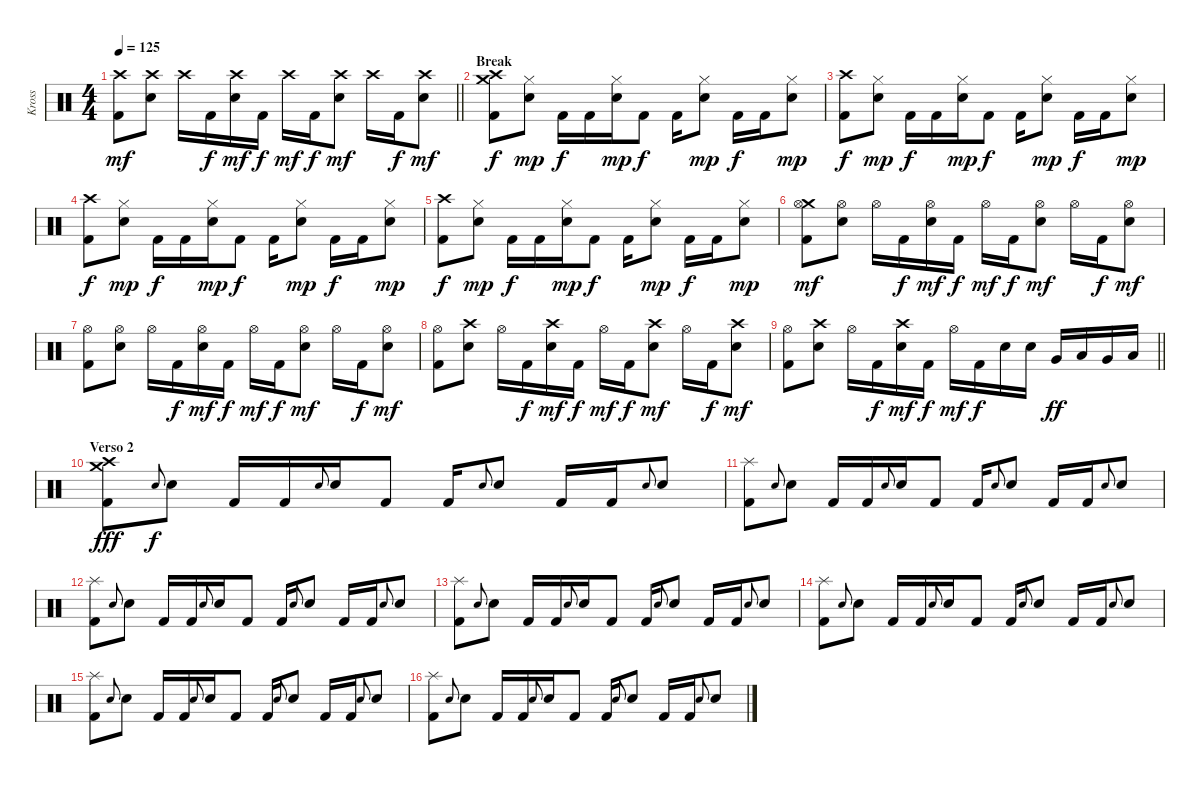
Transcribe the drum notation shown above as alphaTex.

\track ("Kross" "Kross") {instrument percussion}
\staff {score}
\articulation defaults
\ts (4 4)
\tempo 125
\clef neutral
\barLineRight lightlight
\ks c
("Crash high (hit)" "Kick (hit) 2").8{dy mf} ("Crash high (hit)" "Snare (hit) 2").8 "Crash high (hit)".16 "Kick (hit) 2".16{dy f} ("Crash high (hit)" "Snare (hit) 2").16{dy mf} "Kick (hit) 2".16{dy f} "Crash high (hit)".16{dy mf} "Kick (hit) 2".16{dy f} ("Crash high (hit)" "Snare (hit) 2").8{dy mf} "Crash high (hit)".16 "Kick (hit) 2".16{dy f} ("Crash high (hit)" "Snare (hit) 2").8{dy mf} |
\section ("" "Break")
("Crash high (hit)" "Crash medium (hit)" "Kick (hit) 2").8{dy f} ("Hi-Hat (closed)" "Snare (hit) 2").8{dy mp} "Kick (hit) 2".16{dy f} "Kick (hit) 2".16 ("Hi-Hat (closed)" "Snare (hit) 2").16{dy mp} "Kick (hit) 2".8{dy f} "Kick (hit) 2".16 ("Hi-Hat (closed)" "Snare (hit) 2").8{dy mp} "Kick (hit) 2".16{dy f} "Kick (hit) 2".16 ("Hi-Hat (closed)" "Snare (hit) 2").8{dy mp} |
("Crash high (hit)" "Kick (hit) 2").8{dy f} ("Hi-Hat (closed)" "Snare (hit) 2").8{dy mp} "Kick (hit) 2".16{dy f} "Kick (hit) 2".16 ("Hi-Hat (closed)" "Snare (hit) 2").16{dy mp} "Kick (hit) 2".8{dy f} "Kick (hit) 2".16 ("Hi-Hat (closed)" "Snare (hit) 2").8{dy mp} "Kick (hit) 2".16{dy f} "Kick (hit) 2".16 ("Hi-Hat (closed)" "Snare (hit) 2").8{dy mp} |
("Crash high (hit)" "Kick (hit) 2").8{dy f} ("Hi-Hat (closed)" "Snare (hit) 2").8{dy mp} "Kick (hit) 2".16{dy f} "Kick (hit) 2".16 ("Hi-Hat (closed)" "Snare (hit) 2").16{dy mp} "Kick (hit) 2".8{dy f} "Kick (hit) 2".16 ("Hi-Hat (closed)" "Snare (hit) 2").8{dy mp} "Kick (hit) 2".16{dy f} "Kick (hit) 2".16 ("Hi-Hat (closed)" "Snare (hit) 2").8{dy mp} |
("Crash high (hit)" "Kick (hit) 2").8{dy f} ("Hi-Hat (closed)" "Snare (hit) 2").8{dy mp} "Kick (hit) 2".16{dy f} "Kick (hit) 2".16 ("Hi-Hat (closed)" "Snare (hit) 2").16{dy mp} "Kick (hit) 2".8{dy f} "Kick (hit) 2".16 ("Hi-Hat (closed)" "Snare (hit) 2").8{dy mp} "Kick (hit) 2".16{dy f} "Kick (hit) 2".16 ("Hi-Hat (closed)" "Snare (hit) 2").8{dy mp} |
("Crash medium (hit)" "Hi-Hat (open)" "Kick (hit) 2").8{dy mf} ("Hi-Hat (open)" "Snare (hit) 2").8 "Hi-Hat (open)".16 "Kick (hit) 2".16{dy f} ("Hi-Hat (open)" "Snare (hit) 2").16{dy mf} "Kick (hit) 2".16{dy f} "Hi-Hat (open)".16{dy mf} "Kick (hit) 2".16{dy f} ("Hi-Hat (open)" "Snare (hit) 2").8{dy mf} "Hi-Hat (open)".16 "Kick (hit) 2".16{dy f} ("Hi-Hat (open)" "Snare (hit) 2").8{dy mf} |
("Hi-Hat (open)" "Kick (hit) 2").8 ("Hi-Hat (open)" "Snare (hit) 2").8 "Hi-Hat (open)".16 "Kick (hit) 2".16{dy f} ("Hi-Hat (open)" "Snare (hit) 2").16{dy mf} "Kick (hit) 2".16{dy f} "Hi-Hat (open)".16{dy mf} "Kick (hit) 2".16{dy f} ("Hi-Hat (open)" "Snare (hit) 2").8{dy mf} "Hi-Hat (open)".16 "Kick (hit) 2".16{dy f} ("Hi-Hat (open)" "Snare (hit) 2").8{dy mf} |
("Hi-Hat (open)" "Kick (hit) 2").8 ("Crash high (hit)" "Snare (hit) 2").8 "Hi-Hat (open)".16 "Kick (hit) 2".16{dy f} ("Crash high (hit)" "Snare (hit) 2").16{dy mf} "Kick (hit) 2".16{dy f} "Hi-Hat (open)".16{dy mf} "Kick (hit) 2".16{dy f} ("Crash high (hit)" "Snare (hit) 2").8{dy mf} "Hi-Hat (open)".16 "Kick (hit) 2".16{dy f} ("Crash high (hit)" "Snare (hit) 2").8{dy mf} |
\barLineRight lightlight
("Hi-Hat (open)" "Kick (hit) 2").8 ("Crash high (hit)" "Snare (hit) 2").8 "Hi-Hat (open)".16 "Kick (hit) 2".16{dy f} ("Crash high (hit)" "Snare (hit) 2").16{dy mf} "Kick (hit) 2".16{dy f} "Hi-Hat (open)".16{dy mf} "Kick (hit) 2".16{dy f} "Snare (hit) 2".16 "Snare (hit) 2".16 "Very Low Tom (hit)".16{dy ff} "Low Tom (hit)".16 "Very Low Tom (hit)".16 "Low Tom (hit)".16 |
\section ("" "Verso 2")
("Crash high (hit)" "Crash medium (hit)" "Kick (hit) 2").8{dy fff} "Snare (hit) 2".8{gr onbeat dy f} "Snare (hit) 2".8 "Kick (hit) 2".16 "Kick (hit) 2".16 "Snare (hit) 2".8{gr onbeat} "Snare (hit) 2".16 "Kick (hit) 2".8 "Kick (hit) 2".16 "Snare (hit) 2".8{gr onbeat} "Snare (hit) 2".8 "Kick (hit) 2".16 "Kick (hit) 2".16 "Snare (hit) 2".8{gr onbeat} "Snare (hit) 2".8 |
("Splash (hit)" "Kick (hit) 2").8 "Snare (hit) 2".8{gr onbeat} "Snare (hit) 2".8 "Kick (hit) 2".16 "Kick (hit) 2".16 "Snare (hit) 2".8{gr onbeat} "Snare (hit) 2".16 "Kick (hit) 2".8 "Kick (hit) 2".16 "Snare (hit) 2".8{gr onbeat} "Snare (hit) 2".8 "Kick (hit) 2".16 "Kick (hit) 2".16 "Snare (hit) 2".8{gr onbeat} "Snare (hit) 2".8 |
("Splash (hit)" "Kick (hit) 2").8 "Snare (hit) 2".8{gr onbeat} "Snare (hit) 2".8 "Kick (hit) 2".16 "Kick (hit) 2".16 "Snare (hit) 2".8{gr onbeat} "Snare (hit) 2".16 "Kick (hit) 2".8 "Kick (hit) 2".16 "Snare (hit) 2".8{gr onbeat} "Snare (hit) 2".8 "Kick (hit) 2".16 "Kick (hit) 2".16 "Snare (hit) 2".8{gr onbeat} "Snare (hit) 2".8 |
("Splash (hit)" "Kick (hit) 2").8 "Snare (hit) 2".8{gr onbeat} "Snare (hit) 2".8 "Kick (hit) 2".16 "Kick (hit) 2".16 "Snare (hit) 2".8{gr onbeat} "Snare (hit) 2".16 "Kick (hit) 2".8 "Kick (hit) 2".16 "Snare (hit) 2".8{gr onbeat} "Snare (hit) 2".8 "Kick (hit) 2".16 "Kick (hit) 2".16 "Snare (hit) 2".8{gr onbeat} "Snare (hit) 2".8 |
("Splash (hit)" "Kick (hit) 2").8 "Snare (hit) 2".8{gr onbeat} "Snare (hit) 2".8 "Kick (hit) 2".16 "Kick (hit) 2".16 "Snare (hit) 2".8{gr onbeat} "Snare (hit) 2".16 "Kick (hit) 2".8 "Kick (hit) 2".16 "Snare (hit) 2".8{gr onbeat} "Snare (hit) 2".8 "Kick (hit) 2".16 "Kick (hit) 2".16 "Snare (hit) 2".8{gr onbeat} "Snare (hit) 2".8 |
("Splash (hit)" "Kick (hit) 2").8 "Snare (hit) 2".8{gr onbeat} "Snare (hit) 2".8 "Kick (hit) 2".16 "Kick (hit) 2".16 "Snare (hit) 2".8{gr onbeat} "Snare (hit) 2".16 "Kick (hit) 2".8 "Kick (hit) 2".16 "Snare (hit) 2".8{gr onbeat} "Snare (hit) 2".8 "Kick (hit) 2".16 "Kick (hit) 2".16 "Snare (hit) 2".8{gr onbeat} "Snare (hit) 2".8 |
("Splash (hit)" "Kick (hit) 2").8 "Snare (hit) 2".8{gr onbeat} "Snare (hit) 2".8 "Kick (hit) 2".16 "Kick (hit) 2".16 "Snare (hit) 2".8{gr onbeat} "Snare (hit) 2".16 "Kick (hit) 2".8 "Kick (hit) 2".16 "Snare (hit) 2".8{gr onbeat} "Snare (hit) 2".8 "Kick (hit) 2".16 "Kick (hit) 2".16 "Snare (hit) 2".8{gr onbeat} "Snare (hit) 2".8
